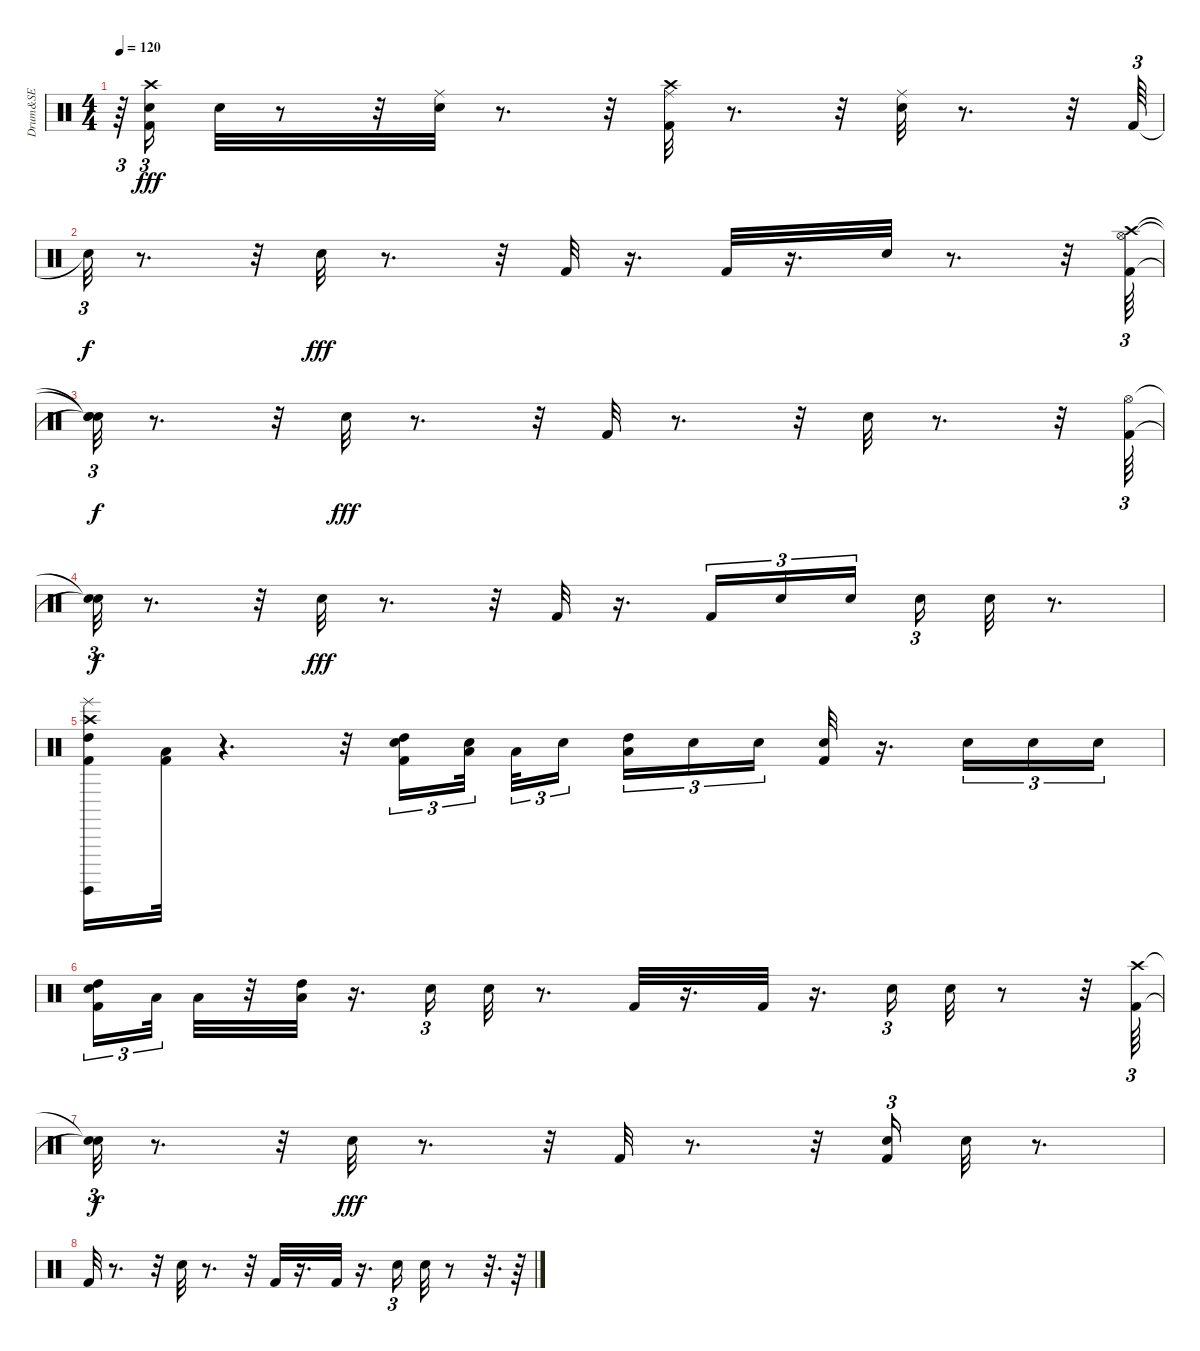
\track ("Drum&SE" "Drum&SE") {instrument percussion}
\staff {score}
\articulation defaults
\ts (4 4)
\tempo 120
\clef neutral
\ks c
r.64{tu (3 2) dy fff} ("Snare (hit) 2" "Kick (hit) 2" "Crash high (hit)").16{tu (3 2)} "Snare (hit) 2".32 r.8 r.32 ("Snare (hit) 2" "Ride (middle)").32 r.8{d} r.32 ("Kick (hit) 2" "Crash high (hit)" "Ride (middle)").32 r.8{d} r.32 ("Snare (hit) 2" "Ride (middle)").32 r.8{d} r.32 "Kick (hit) 2".64{tu (3 2)} |
"Snare (hit)"{t}.32{tu (3 2) dy f} r.8{d} r.32 "Snare (hit) 2".32{dy fff} r.8{d} r.32 "Kick (hit) 2".32 r.16{d} "Kick (hit) 2".32 r.16{d} "Snare (hit) 2".32 r.8{d} r.32 ("Kick (hit) 2" "Hi-Hat (open)" "Crash high (hit)").64{tu (3 2)} |
("Snare (hit)"{t} "Snare (hit)"{t} "Snare (hit)"{t}).32{tu (3 2) dy f} r.8{d} r.32 "Snare (hit) 2".32{dy fff} r.8{d} r.32 "Kick (hit) 2".32 r.8{d} r.32 "Snare (hit) 2".32 r.8{d} r.32 ("Kick (hit) 2" "Hi-Hat (open)").64{tu (3 2)} |
("Snare (hit)"{t} "Snare (hit)"{t}).32{tu (3 2) dy f} r.8{d} r.32 "Snare (hit) 2".32{dy fff} r.8{d} r.32 "Kick (hit) 2".32 r.16{d} "Kick (hit) 2".16{tu (3 2)} "Snare (hit) 2".16{tu (3 2)} "Snare (hit) 2".16{tu (3 2)} "Snare (hit) 2".16{tu (3 2)} "Snare (hit) 2".32 r.8{d} |
("Kick (hit) 2" "High Tom (hit)" "Surdo (hit)" "Crash high (hit)" "Hand (slap)").16 ("Kick (hit) 2" "Low Tom (hit)").32 r.4{d} r.32 ("Kick (hit) 2" "Snare (hit) 2" "High Tom (hit)").16{tu (3 2)} ("Snare (hit) 2" "Low Floor Tom (hit)").32{tu (3 2)} "Low Tom (hit)".32{tu (3 2)} "Snare (hit) 2".16{tu (3 2)} ("Low Floor Tom (hit)" "High Tom (hit)").16{tu (3 2)} "Snare (hit) 2".16{tu (3 2)} "Snare (hit) 2".16{tu (3 2)} ("Kick (hit) 2" "Snare (hit) 2").32 r.16{d} "Snare (hit) 2".16{tu (3 2)} "Snare (hit) 2".16{tu (3 2)} "Snare (hit) 2".16{tu (3 2)} |
("Kick (hit) 2" "High Tom (hit)" "Snare (hit) 2").16{tu (3 2)} "Low Floor Tom (hit)".32{tu (3 2)} "Low Tom (hit)".32 r.32 ("Low Floor Tom (hit)" "High Tom (hit)").32 r.16{d} "Snare (hit) 2".16{tu (3 2)} "Snare (hit) 2".32 r.8{d} "Kick (hit) 2".32 r.16{d} "Kick (hit) 2".32 r.16{d} "Snare (hit) 2".16{tu (3 2)} "Snare (hit) 2".32 r.8 r.32 ("Kick (hit) 2" "Crash high (hit)").64{tu (3 2)} |
("Snare (hit)"{t} "Snare (hit)"{t}).32{tu (3 2) dy f} r.8{d} r.32 "Snare (hit) 2".32{dy fff} r.8{d} r.32 "Kick (hit) 2".32 r.8{d} r.32 ("Kick (hit) 2" "Snare (hit) 2").16{tu (3 2)} "Snare (hit) 2".32 r.8{d} |
"Kick (hit) 2".32 r.8{d} r.32 "Snare (hit) 2".32 r.8{d} r.32 "Kick (hit) 2".32 r.16{d} "Kick (hit) 2".32 r.16{d} "Snare (hit) 2".16{tu (3 2)} "Snare (hit) 2".32 r.8 r.32{d} r.64
